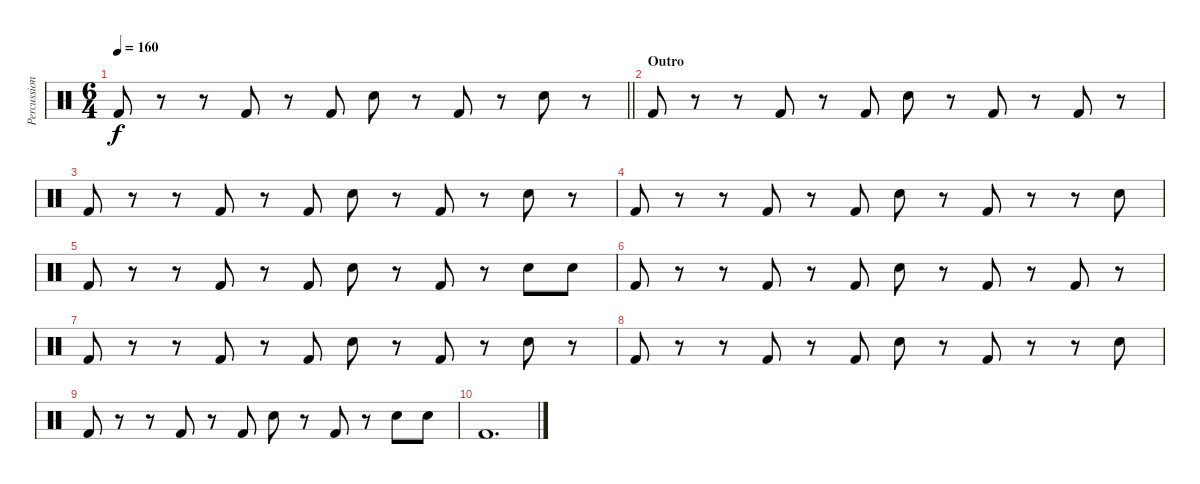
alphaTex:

\track ("Percussion" "Percussion") {instrument percussion}
\staff {score}
\articulation defaults
\ts (6 4)
\tempo 160
\clef neutral
\barLineRight lightlight
\ks c "Kick (hit) 2".8{dy f}
r.8 r.8 "Kick (hit) 2".8 r.8 "Kick (hit) 2".8 "Snare (hit) 2".8 r.8 "Kick (hit) 2".8 r.8 "Snare (hit) 2".8 r.8 |
\section ("" "Outro")
"Kick (hit) 2".8 r.8 r.8 "Kick (hit) 2".8 r.8 "Kick (hit) 2".8 "Snare (hit) 2".8 r.8 "Kick (hit) 2".8 r.8 "Kick (hit) 2".8 r.8 |
"Kick (hit) 2".8 r.8 r.8 "Kick (hit) 2".8 r.8 "Kick (hit) 2".8 "Snare (hit) 2".8 r.8 "Kick (hit) 2".8 r.8 "Snare (hit) 2".8 r.8 |
"Kick (hit) 2".8 r.8 r.8 "Kick (hit) 2".8 r.8 "Kick (hit) 2".8 "Snare (hit) 2".8 r.8 "Kick (hit) 2".8 r.8 r.8 "Snare (hit) 2".8 |
"Kick (hit) 2".8 r.8 r.8 "Kick (hit) 2".8 r.8 "Kick (hit) 2".8 "Snare (hit) 2".8 r.8 "Kick (hit) 2".8 r.8 "Snare (hit) 2".8 "Snare (hit) 2".8 |
"Kick (hit) 2".8 r.8 r.8 "Kick (hit) 2".8 r.8 "Kick (hit) 2".8 "Snare (hit) 2".8 r.8 "Kick (hit) 2".8 r.8 "Kick (hit) 2".8 r.8 |
"Kick (hit) 2".8 r.8 r.8 "Kick (hit) 2".8 r.8 "Kick (hit) 2".8 "Snare (hit) 2".8 r.8 "Kick (hit) 2".8 r.8 "Snare (hit) 2".8 r.8 |
"Kick (hit) 2".8 r.8 r.8 "Kick (hit) 2".8 r.8 "Kick (hit) 2".8 "Snare (hit) 2".8 r.8 "Kick (hit) 2".8 r.8 r.8 "Snare (hit) 2".8 |
"Kick (hit) 2".8 r.8 r.8 "Kick (hit) 2".8 r.8 "Kick (hit) 2".8 "Snare (hit) 2".8 r.8 "Kick (hit) 2".8 r.8 "Snare (hit) 2".8 "Snare (hit) 2".8 |
"Kick (hit) 2".1{d}
